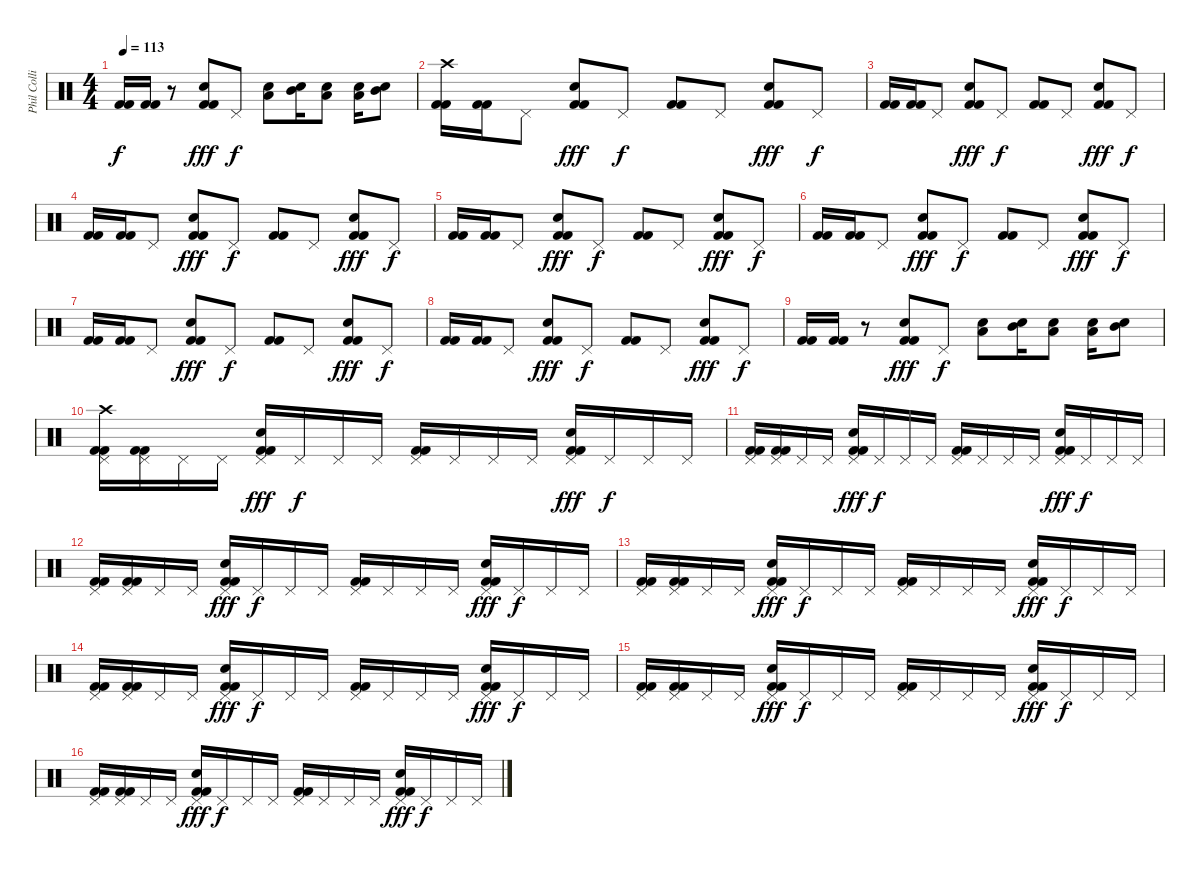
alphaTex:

\track ("Phil Collins" "Phil Colli") {instrument percussion}
\staff {score}
\articulation defaults
\ts (4 4)
\tempo 113
\clef neutral
\ks c
("Kick (hit) 2" "Kick (hit) 2").16{dy f} ("Kick (hit) 2" "Kick (hit) 2").16 r.8 ("Electric Snare (hit)" "Kick (hit) 2" "Kick (hit) 2").8{dy fff} "Pedal Hi-Hat (hit)".8{dy f} ("Electric Snare (hit)" "Low Tom (hit)").8 ("Electric Snare (hit)" "Mid Tom (hit)").16 ("Electric Snare (hit)" "Low Tom (hit)").8 ("Electric Snare (hit)" "Low Tom (hit)").16 ("Electric Snare (hit)" "Mid Tom (hit)").8 |
("Crash high (hit)" "Kick (hit) 2" "Kick (hit) 2").16 ("Kick (hit) 2" "Kick (hit) 2").16 "Pedal Hi-Hat (hit)".8 ("Electric Snare (hit)" "Kick (hit) 2" "Kick (hit) 2").8{dy fff} "Pedal Hi-Hat (hit)".8{dy f} ("Kick (hit) 2" "Kick (hit) 2").8 "Pedal Hi-Hat (hit)".8 ("Electric Snare (hit)" "Kick (hit) 2" "Kick (hit) 2").8{dy fff} "Pedal Hi-Hat (hit)".8{dy f} |
("Kick (hit) 2" "Kick (hit) 2").16 ("Kick (hit) 2" "Kick (hit) 2").16 "Pedal Hi-Hat (hit)".8 ("Electric Snare (hit)" "Kick (hit) 2" "Kick (hit) 2").8{dy fff} "Pedal Hi-Hat (hit)".8{dy f} ("Kick (hit) 2" "Kick (hit) 2").8 "Pedal Hi-Hat (hit)".8 ("Electric Snare (hit)" "Kick (hit) 2" "Kick (hit) 2").8{dy fff} "Pedal Hi-Hat (hit)".8{dy f} |
("Kick (hit) 2" "Kick (hit) 2").16 ("Kick (hit) 2" "Kick (hit) 2").16 "Pedal Hi-Hat (hit)".8 ("Electric Snare (hit)" "Kick (hit) 2" "Kick (hit) 2").8{dy fff} "Pedal Hi-Hat (hit)".8{dy f} ("Kick (hit) 2" "Kick (hit) 2").8 "Pedal Hi-Hat (hit)".8 ("Electric Snare (hit)" "Kick (hit) 2" "Kick (hit) 2").8{dy fff} "Pedal Hi-Hat (hit)".8{dy f} |
("Kick (hit) 2" "Kick (hit) 2").16 ("Kick (hit) 2" "Kick (hit) 2").16 "Pedal Hi-Hat (hit)".8 ("Electric Snare (hit)" "Kick (hit) 2" "Kick (hit) 2").8{dy fff} "Pedal Hi-Hat (hit)".8{dy f} ("Kick (hit) 2" "Kick (hit) 2").8 "Pedal Hi-Hat (hit)".8 ("Electric Snare (hit)" "Kick (hit) 2" "Kick (hit) 2").8{dy fff} "Pedal Hi-Hat (hit)".8{dy f} |
("Kick (hit) 2" "Kick (hit) 2").16 ("Kick (hit) 2" "Kick (hit) 2").16 "Pedal Hi-Hat (hit)".8 ("Electric Snare (hit)" "Kick (hit) 2" "Kick (hit) 2").8{dy fff} "Pedal Hi-Hat (hit)".8{dy f} ("Kick (hit) 2" "Kick (hit) 2").8 "Pedal Hi-Hat (hit)".8 ("Electric Snare (hit)" "Kick (hit) 2" "Kick (hit) 2").8{dy fff} "Pedal Hi-Hat (hit)".8{dy f} |
("Kick (hit) 2" "Kick (hit) 2").16 ("Kick (hit) 2" "Kick (hit) 2").16 "Pedal Hi-Hat (hit)".8 ("Electric Snare (hit)" "Kick (hit) 2" "Kick (hit) 2").8{dy fff} "Pedal Hi-Hat (hit)".8{dy f} ("Kick (hit) 2" "Kick (hit) 2").8 "Pedal Hi-Hat (hit)".8 ("Electric Snare (hit)" "Kick (hit) 2" "Kick (hit) 2").8{dy fff} "Pedal Hi-Hat (hit)".8{dy f} |
("Kick (hit) 2" "Kick (hit) 2").16 ("Kick (hit) 2" "Kick (hit) 2").16 "Pedal Hi-Hat (hit)".8 ("Electric Snare (hit)" "Kick (hit) 2" "Kick (hit) 2").8{dy fff} "Pedal Hi-Hat (hit)".8{dy f} ("Kick (hit) 2" "Kick (hit) 2").8 "Pedal Hi-Hat (hit)".8 ("Electric Snare (hit)" "Kick (hit) 2" "Kick (hit) 2").8{dy fff} "Pedal Hi-Hat (hit)".8{dy f} |
("Kick (hit) 2" "Kick (hit) 2").16 ("Kick (hit) 2" "Kick (hit) 2").16 r.8 ("Electric Snare (hit)" "Kick (hit) 2" "Kick (hit) 2").8{dy fff} "Pedal Hi-Hat (hit)".8{dy f} ("Electric Snare (hit)" "Low Tom (hit)").8 ("Electric Snare (hit)" "Mid Tom (hit)").16 ("Electric Snare (hit)" "Low Tom (hit)").8 ("Electric Snare (hit)" "Low Tom (hit)").16 ("Electric Snare (hit)" "Mid Tom (hit)").8 |
("Pedal Hi-Hat (hit)" "Crash high (hit)" "Kick (hit) 2" "Kick (hit) 2").16 ("Pedal Hi-Hat (hit)" "Kick (hit) 2" "Kick (hit) 2").16 "Pedal Hi-Hat (hit)".16 "Pedal Hi-Hat (hit)".16 ("Pedal Hi-Hat (hit)" "Electric Snare (hit)" "Kick (hit) 2" "Kick (hit) 2").16{dy fff} "Pedal Hi-Hat (hit)".16{dy f} "Pedal Hi-Hat (hit)".16 "Pedal Hi-Hat (hit)".16 ("Pedal Hi-Hat (hit)" "Kick (hit) 2" "Kick (hit) 2").16 "Pedal Hi-Hat (hit)".16 "Pedal Hi-Hat (hit)".16 "Pedal Hi-Hat (hit)".16 ("Pedal Hi-Hat (hit)" "Electric Snare (hit)" "Kick (hit) 2" "Kick (hit) 2").16{dy fff} "Pedal Hi-Hat (hit)".16{dy f} "Pedal Hi-Hat (hit)".16 "Pedal Hi-Hat (hit)".16 |
("Pedal Hi-Hat (hit)" "Kick (hit) 2" "Kick (hit) 2").16 ("Pedal Hi-Hat (hit)" "Kick (hit) 2" "Kick (hit) 2").16 "Pedal Hi-Hat (hit)".16 "Pedal Hi-Hat (hit)".16 ("Pedal Hi-Hat (hit)" "Electric Snare (hit)" "Kick (hit) 2" "Kick (hit) 2").16{dy fff} "Pedal Hi-Hat (hit)".16{dy f} "Pedal Hi-Hat (hit)".16 "Pedal Hi-Hat (hit)".16 ("Pedal Hi-Hat (hit)" "Kick (hit) 2" "Kick (hit) 2").16 "Pedal Hi-Hat (hit)".16 "Pedal Hi-Hat (hit)".16 "Pedal Hi-Hat (hit)".16 ("Pedal Hi-Hat (hit)" "Electric Snare (hit)" "Kick (hit) 2" "Kick (hit) 2").16{dy fff} "Pedal Hi-Hat (hit)".16{dy f} "Pedal Hi-Hat (hit)".16 "Pedal Hi-Hat (hit)".16 |
("Pedal Hi-Hat (hit)" "Kick (hit) 2" "Kick (hit) 2").16 ("Pedal Hi-Hat (hit)" "Kick (hit) 2" "Kick (hit) 2").16 "Pedal Hi-Hat (hit)".16 "Pedal Hi-Hat (hit)".16 ("Pedal Hi-Hat (hit)" "Electric Snare (hit)" "Kick (hit) 2" "Kick (hit) 2").16{dy fff} "Pedal Hi-Hat (hit)".16{dy f} "Pedal Hi-Hat (hit)".16 "Pedal Hi-Hat (hit)".16 ("Pedal Hi-Hat (hit)" "Kick (hit) 2" "Kick (hit) 2").16 "Pedal Hi-Hat (hit)".16 "Pedal Hi-Hat (hit)".16 "Pedal Hi-Hat (hit)".16 ("Pedal Hi-Hat (hit)" "Electric Snare (hit)" "Kick (hit) 2" "Kick (hit) 2").16{dy fff} "Pedal Hi-Hat (hit)".16{dy f} "Pedal Hi-Hat (hit)".16 "Pedal Hi-Hat (hit)".16 |
("Pedal Hi-Hat (hit)" "Kick (hit) 2" "Kick (hit) 2").16 ("Pedal Hi-Hat (hit)" "Kick (hit) 2" "Kick (hit) 2").16 "Pedal Hi-Hat (hit)".16 "Pedal Hi-Hat (hit)".16 ("Pedal Hi-Hat (hit)" "Electric Snare (hit)" "Kick (hit) 2" "Kick (hit) 2").16{dy fff} "Pedal Hi-Hat (hit)".16{dy f} "Pedal Hi-Hat (hit)".16 "Pedal Hi-Hat (hit)".16 ("Pedal Hi-Hat (hit)" "Kick (hit) 2" "Kick (hit) 2").16 "Pedal Hi-Hat (hit)".16 "Pedal Hi-Hat (hit)".16 "Pedal Hi-Hat (hit)".16 ("Pedal Hi-Hat (hit)" "Electric Snare (hit)" "Kick (hit) 2" "Kick (hit) 2").16{dy fff} "Pedal Hi-Hat (hit)".16{dy f} "Pedal Hi-Hat (hit)".16 "Pedal Hi-Hat (hit)".16 |
("Pedal Hi-Hat (hit)" "Kick (hit) 2" "Kick (hit) 2").16 ("Pedal Hi-Hat (hit)" "Kick (hit) 2" "Kick (hit) 2").16 "Pedal Hi-Hat (hit)".16 "Pedal Hi-Hat (hit)".16 ("Pedal Hi-Hat (hit)" "Electric Snare (hit)" "Kick (hit) 2" "Kick (hit) 2").16{dy fff} "Pedal Hi-Hat (hit)".16{dy f} "Pedal Hi-Hat (hit)".16 "Pedal Hi-Hat (hit)".16 ("Pedal Hi-Hat (hit)" "Kick (hit) 2" "Kick (hit) 2").16 "Pedal Hi-Hat (hit)".16 "Pedal Hi-Hat (hit)".16 "Pedal Hi-Hat (hit)".16 ("Pedal Hi-Hat (hit)" "Electric Snare (hit)" "Kick (hit) 2" "Kick (hit) 2").16{dy fff} "Pedal Hi-Hat (hit)".16{dy f} "Pedal Hi-Hat (hit)".16 "Pedal Hi-Hat (hit)".16 |
("Pedal Hi-Hat (hit)" "Kick (hit) 2" "Kick (hit) 2").16 ("Pedal Hi-Hat (hit)" "Kick (hit) 2" "Kick (hit) 2").16 "Pedal Hi-Hat (hit)".16 "Pedal Hi-Hat (hit)".16 ("Pedal Hi-Hat (hit)" "Electric Snare (hit)" "Kick (hit) 2" "Kick (hit) 2").16{dy fff} "Pedal Hi-Hat (hit)".16{dy f} "Pedal Hi-Hat (hit)".16 "Pedal Hi-Hat (hit)".16 ("Pedal Hi-Hat (hit)" "Kick (hit) 2" "Kick (hit) 2").16 "Pedal Hi-Hat (hit)".16 "Pedal Hi-Hat (hit)".16 "Pedal Hi-Hat (hit)".16 ("Pedal Hi-Hat (hit)" "Electric Snare (hit)" "Kick (hit) 2" "Kick (hit) 2").16{dy fff} "Pedal Hi-Hat (hit)".16{dy f} "Pedal Hi-Hat (hit)".16 "Pedal Hi-Hat (hit)".16 |
("Pedal Hi-Hat (hit)" "Kick (hit) 2" "Kick (hit) 2").16 ("Pedal Hi-Hat (hit)" "Kick (hit) 2" "Kick (hit) 2").16 "Pedal Hi-Hat (hit)".16 "Pedal Hi-Hat (hit)".16 ("Pedal Hi-Hat (hit)" "Electric Snare (hit)" "Kick (hit) 2" "Kick (hit) 2").16{dy fff} "Pedal Hi-Hat (hit)".16{dy f} "Pedal Hi-Hat (hit)".16 "Pedal Hi-Hat (hit)".16 ("Pedal Hi-Hat (hit)" "Kick (hit) 2" "Kick (hit) 2").16 "Pedal Hi-Hat (hit)".16 "Pedal Hi-Hat (hit)".16 "Pedal Hi-Hat (hit)".16 ("Pedal Hi-Hat (hit)" "Electric Snare (hit)" "Kick (hit) 2" "Kick (hit) 2").16{dy fff} "Pedal Hi-Hat (hit)".16{dy f} "Pedal Hi-Hat (hit)".16 "Pedal Hi-Hat (hit)".16
